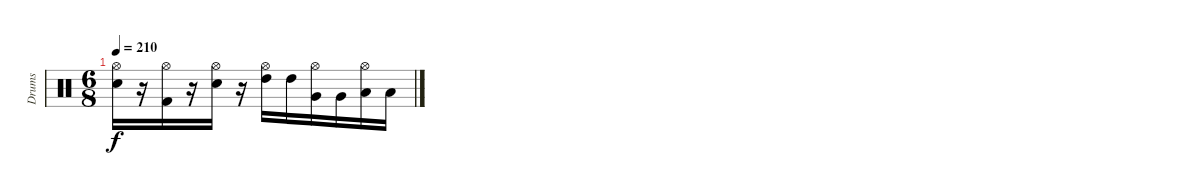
\track ("Drums" "Drums") {instrument percussion}
\staff {score}
\articulation defaults
\ts (6 8)
\tempo 210
\clef neutral
\ks c
("Hi-Hat (open)" "Electric Snare (hit)").16{dy f} r.16 ("Hi-Hat (open)" "Kick (hit) 2").16 r.16 ("Hi-Hat (open)" "Electric Snare (hit)").16 r.16 ("Hi-Hat (open)" "High Tom (hit)").16 "High Tom (hit)".16 ("Hi-Hat (open)" "Very Low Tom (hit)").16 "Very Low Tom (hit)".16 ("Hi-Hat (open)" "Low Floor Tom (hit)").16 "Low Floor Tom (hit)".16
